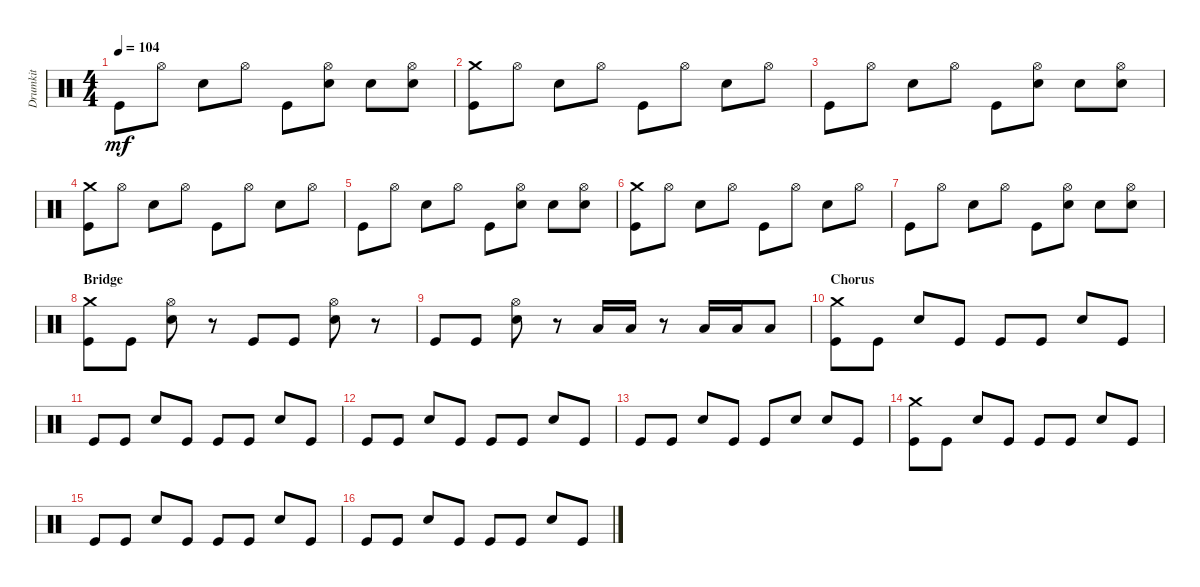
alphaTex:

\track ("Drumkit" "Drumkit") {instrument percussion}
\staff {score}
\articulation defaults
\ts (4 4)
\tempo 104
\clef neutral
\ks c "Kick (hit)".8{dy mf} "Hi-Hat (open)".8 "Snare (hit) 2".8 "Hi-Hat (open)".8 "Kick (hit)".8
("Hi-Hat (open)" "Snare (hit) 2").8 "Snare (hit) 2".8 ("Hi-Hat (open)" "Snare (hit) 2").8 |
("Kick (hit)" "Crash medium (hit)").8 "Hi-Hat (open)".8 "Snare (hit) 2".8 "Hi-Hat (open)".8 "Kick (hit)".8 "Hi-Hat (open)".8 "Snare (hit) 2".8 "Hi-Hat (open)".8 |
"Kick (hit)".8 "Hi-Hat (open)".8 "Snare (hit) 2".8 "Hi-Hat (open)".8 "Kick (hit)".8 ("Hi-Hat (open)" "Snare (hit) 2").8 "Snare (hit) 2".8 ("Hi-Hat (open)" "Snare (hit) 2").8 |
("Kick (hit)" "Crash medium (hit)").8 "Hi-Hat (open)".8 "Snare (hit) 2".8 "Hi-Hat (open)".8 "Kick (hit)".8 "Hi-Hat (open)".8 "Snare (hit) 2".8 "Hi-Hat (open)".8 |
"Kick (hit)".8 "Hi-Hat (open)".8 "Snare (hit) 2".8 "Hi-Hat (open)".8 "Kick (hit)".8 ("Hi-Hat (open)" "Snare (hit) 2").8 "Snare (hit) 2".8 ("Hi-Hat (open)" "Snare (hit) 2").8 |
("Kick (hit)" "Crash medium (hit)").8 "Hi-Hat (open)".8 "Snare (hit) 2".8 "Hi-Hat (open)".8 "Kick (hit)".8 "Hi-Hat (open)".8 "Snare (hit) 2".8 "Hi-Hat (open)".8 |
"Kick (hit)".8 "Hi-Hat (open)".8 "Snare (hit) 2".8 "Hi-Hat (open)".8 "Kick (hit)".8 ("Hi-Hat (open)" "Snare (hit) 2").8 "Snare (hit) 2".8 ("Hi-Hat (open)" "Snare (hit) 2").8 |
\section ("" "Bridge")
("Kick (hit)" "Crash medium (hit)").8 "Kick (hit)".8 ("Snare (hit) 2" "Hi-Hat (open)").8 r.8 "Kick (hit)".8 "Kick (hit)".8 ("Snare (hit) 2" "Hi-Hat (open)").8 r.8 |
"Kick (hit)".8 "Kick (hit)".8 ("Snare (hit) 2" "Hi-Hat (open)").8 r.8 "Low Floor Tom (hit)".16 "Low Floor Tom (hit)".16 r.8 "Low Floor Tom (hit)".16 "Low Floor Tom (hit)".16 "Low Floor Tom (hit)".8 |
\section ("" "Chorus")
("Crash medium (hit)" "Kick (hit)").8 "Kick (hit)".8 "Snare (hit) 2".8 "Kick (hit)".8 "Kick (hit)".8 "Kick (hit)".8 "Snare (hit) 2".8 "Kick (hit)".8 |
"Kick (hit)".8 "Kick (hit)".8 "Snare (hit) 2".8 "Kick (hit)".8 "Kick (hit)".8 "Kick (hit)".8 "Snare (hit) 2".8 "Kick (hit)".8 |
"Kick (hit)".8 "Kick (hit)".8 "Snare (hit) 2".8 "Kick (hit)".8 "Kick (hit)".8 "Kick (hit)".8 "Snare (hit) 2".8 "Kick (hit)".8 |
"Kick (hit)".8 "Kick (hit)".8 "Snare (hit) 2".8 "Kick (hit)".8 "Kick (hit)".8 "Snare (hit) 2".8 "Snare (hit) 2".8 "Kick (hit)".8 |
("Crash medium (hit)" "Kick (hit)").8 "Kick (hit)".8 "Snare (hit) 2".8 "Kick (hit)".8 "Kick (hit)".8 "Kick (hit)".8 "Snare (hit) 2".8 "Kick (hit)".8 |
"Kick (hit)".8 "Kick (hit)".8 "Snare (hit) 2".8 "Kick (hit)".8 "Kick (hit)".8 "Kick (hit)".8 "Snare (hit) 2".8 "Kick (hit)".8 |
"Kick (hit)".8 "Kick (hit)".8 "Snare (hit) 2".8 "Kick (hit)".8 "Kick (hit)".8 "Kick (hit)".8 "Snare (hit) 2".8 "Kick (hit)".8
